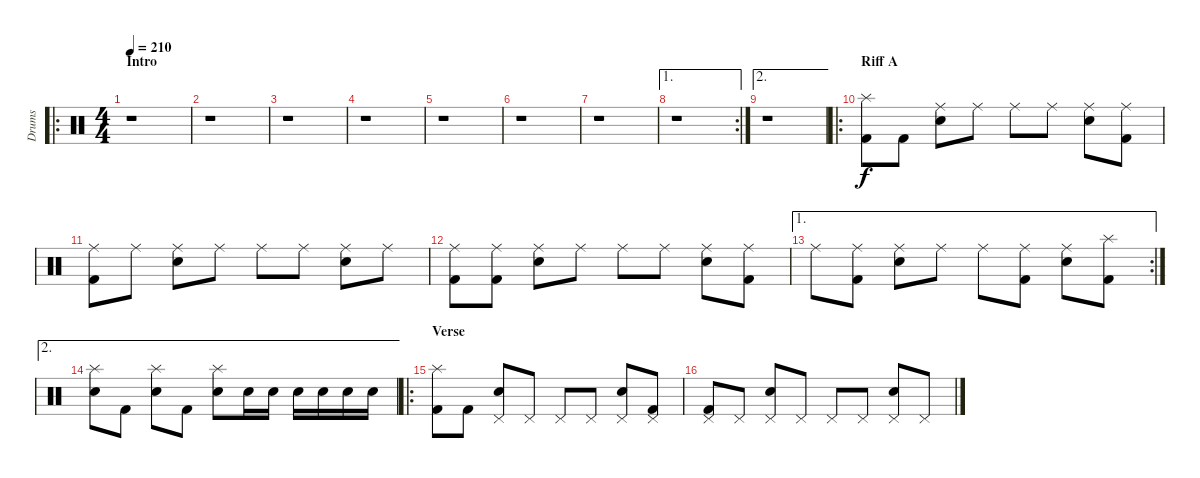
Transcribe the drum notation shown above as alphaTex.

\track ("Drums" "Drums") {instrument percussion}
\staff {score}
\articulation defaults
\ro
\ts (4 4)
\section ("" "Intro")
\tempo 210
\clef neutral
\ks c
r.1{dy f} |
r.1 |
r.1 |
r.1 |
r.1 |
r.1 |
r.1 |
\ae 1
\rc 2
r.1 |
\ae 2
r.1 |
\ro
\section ("" "Riff A")
("Splash (hit)" "Kick (hit) 2").8 "Kick (hit) 2".8 ("Ride (middle)" "Electric Snare (hit)").8 "Ride (middle)".8 "Ride (middle)".8 "Ride (middle)".8 ("Ride (middle)" "Electric Snare (hit)").8 ("Ride (middle)" "Kick (hit) 2").8 |
("Ride (middle)" "Kick (hit) 2").8 "Ride (middle)".8 ("Ride (middle)" "Electric Snare (hit)").8 "Ride (middle)".8 "Ride (middle)".8 "Ride (middle)".8 ("Ride (middle)" "Electric Snare (hit)").8 "Ride (middle)".8 |
("Ride (middle)" "Kick (hit) 2").8 ("Ride (middle)" "Kick (hit) 2").8 ("Ride (middle)" "Electric Snare (hit)").8 "Ride (middle)".8 "Ride (middle)".8 "Ride (middle)".8 ("Ride (middle)" "Electric Snare (hit)").8 ("Ride (middle)" "Kick (hit) 2").8 |
\ae 1
\rc 2 "Ride (middle)".8
("Ride (middle)" "Kick (hit) 2").8 ("Ride (middle)" "Electric Snare (hit)").8 "Ride (middle)".8 "Ride (middle)".8 ("Ride (middle)" "Kick (hit) 2").8 ("Ride (middle)" "Electric Snare (hit)").8 ("Splash (hit)" "Kick (hit) 2").8 |
\ae 2
("Splash (hit)" "Electric Snare (hit)").8 "Kick (hit) 2".8 ("Splash (hit)" "Electric Snare (hit)").8 "Kick (hit) 2".8 ("Splash (hit)" "Electric Snare (hit)").8 "Electric Snare (hit)".16 "Electric Snare (hit)".16 "Electric Snare (hit)".16 "Electric Snare (hit)".16 "Electric Snare (hit)".16 "Electric Snare (hit)".16 |
\ro
\section ("" "Verse")
("Splash (hit)" "Kick (hit) 2").8 "Kick (hit) 2".8 ("Pedal Hi-Hat (hit)" "Electric Snare (hit)").8 "Pedal Hi-Hat (hit)".8 "Pedal Hi-Hat (hit)".8 "Pedal Hi-Hat (hit)".8 ("Pedal Hi-Hat (hit)" "Electric Snare (hit)").8 ("Pedal Hi-Hat (hit)" "Kick (hit) 2").8 |
("Pedal Hi-Hat (hit)" "Kick (hit) 2").8 "Pedal Hi-Hat (hit)".8 ("Pedal Hi-Hat (hit)" "Electric Snare (hit)").8 "Pedal Hi-Hat (hit)".8 "Pedal Hi-Hat (hit)".8 "Pedal Hi-Hat (hit)".8 ("Pedal Hi-Hat (hit)" "Electric Snare (hit)").8 "Pedal Hi-Hat (hit)".8
